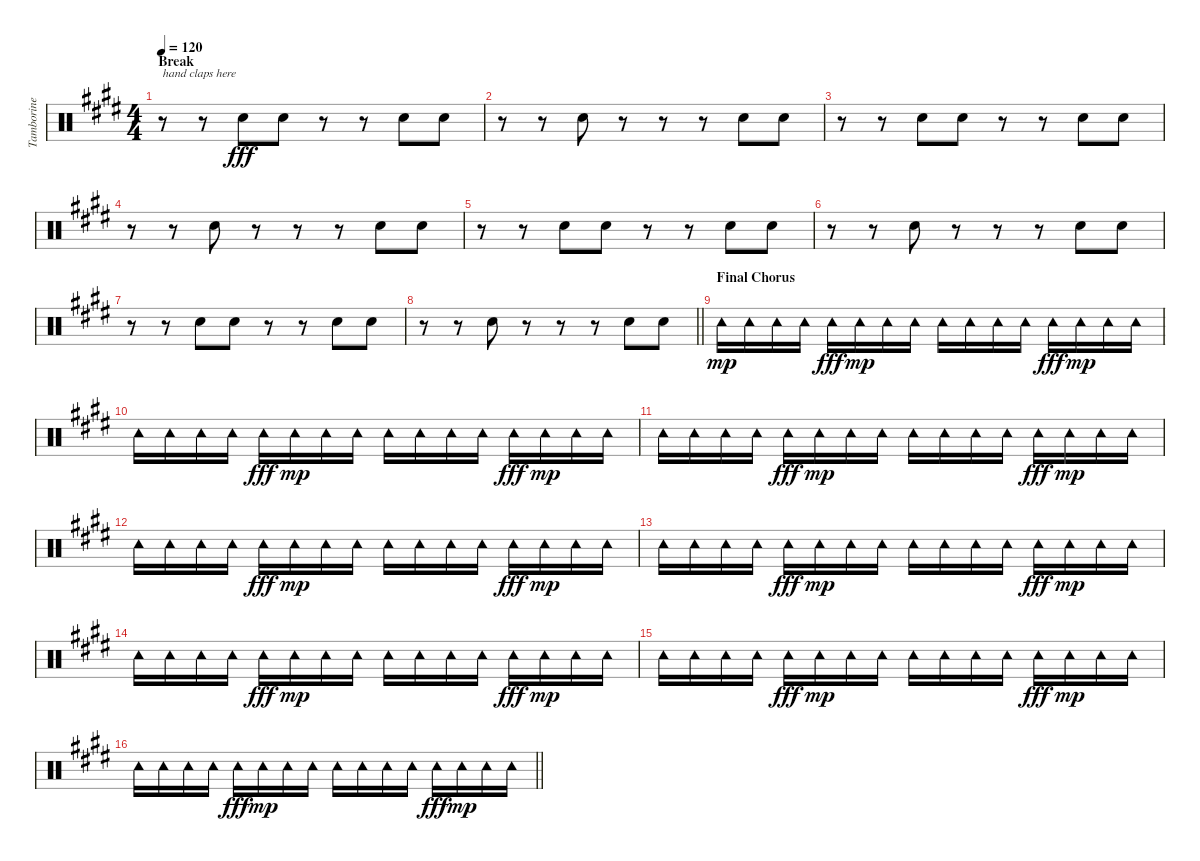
\track ("Tamborine" "Tamborine") {instrument percussion}
\staff {score}
\articulation defaults
\ts (4 4)
\section ("" "Break")
\tempo 120
\clef neutral
\ks e
r.8{txt "hand claps here" dy p} r.8 "Hand Clap (hit)".8{dy fff} "Hand Clap (hit)".8 r.8 r.8 "Hand Clap (hit)".8 "Hand Clap (hit)".8 |
r.8 r.8 "Hand Clap (hit)".8 r.8 r.8 r.8 "Hand Clap (hit)".8 "Hand Clap (hit)".8 |
r.8 r.8 "Hand Clap (hit)".8 "Hand Clap (hit)".8 r.8 r.8 "Hand Clap (hit)".8 "Hand Clap (hit)".8 |
r.8 r.8 "Hand Clap (hit)".8 r.8 r.8 r.8 "Hand Clap (hit)".8 "Hand Clap (hit)".8 |
r.8 r.8 "Hand Clap (hit)".8 "Hand Clap (hit)".8 r.8 r.8 "Hand Clap (hit)".8 "Hand Clap (hit)".8 |
r.8 r.8 "Hand Clap (hit)".8 r.8 r.8 r.8 "Hand Clap (hit)".8 "Hand Clap (hit)".8 |
r.8 r.8 "Hand Clap (hit)".8 "Hand Clap (hit)".8 r.8 r.8 "Hand Clap (hit)".8 "Hand Clap (hit)".8 |
\barLineRight lightlight
r.8 r.8 "Hand Clap (hit)".8 r.8 r.8 r.8 "Hand Clap (hit)".8 "Hand Clap (hit)".8 |
\section ("" "Final Chorus")
"Tambourine (hit)".16{dy mp} "Tambourine (hit)".16 "Tambourine (hit)".16 "Tambourine (hit)".16 "Tambourine (hit)".16{dy fff} "Tambourine (hit)".16{dy mp} "Tambourine (hit)".16 "Tambourine (hit)".16 "Tambourine (hit)".16 "Tambourine (hit)".16 "Tambourine (hit)".16 "Tambourine (hit)".16 "Tambourine (hit)".16{dy fff} "Tambourine (hit)".16{dy mp} "Tambourine (hit)".16 "Tambourine (hit)".16 |
"Tambourine (hit)".16 "Tambourine (hit)".16 "Tambourine (hit)".16 "Tambourine (hit)".16 "Tambourine (hit)".16{dy fff} "Tambourine (hit)".16{dy mp} "Tambourine (hit)".16 "Tambourine (hit)".16 "Tambourine (hit)".16 "Tambourine (hit)".16 "Tambourine (hit)".16 "Tambourine (hit)".16 "Tambourine (hit)".16{dy fff} "Tambourine (hit)".16{dy mp} "Tambourine (hit)".16 "Tambourine (hit)".16 |
"Tambourine (hit)".16 "Tambourine (hit)".16 "Tambourine (hit)".16 "Tambourine (hit)".16 "Tambourine (hit)".16{dy fff} "Tambourine (hit)".16{dy mp} "Tambourine (hit)".16 "Tambourine (hit)".16 "Tambourine (hit)".16 "Tambourine (hit)".16 "Tambourine (hit)".16 "Tambourine (hit)".16 "Tambourine (hit)".16{dy fff} "Tambourine (hit)".16{dy mp} "Tambourine (hit)".16 "Tambourine (hit)".16 |
"Tambourine (hit)".16 "Tambourine (hit)".16 "Tambourine (hit)".16 "Tambourine (hit)".16 "Tambourine (hit)".16{dy fff} "Tambourine (hit)".16{dy mp} "Tambourine (hit)".16 "Tambourine (hit)".16 "Tambourine (hit)".16 "Tambourine (hit)".16 "Tambourine (hit)".16 "Tambourine (hit)".16 "Tambourine (hit)".16{dy fff} "Tambourine (hit)".16{dy mp} "Tambourine (hit)".16 "Tambourine (hit)".16 |
"Tambourine (hit)".16 "Tambourine (hit)".16 "Tambourine (hit)".16 "Tambourine (hit)".16 "Tambourine (hit)".16{dy fff} "Tambourine (hit)".16{dy mp} "Tambourine (hit)".16 "Tambourine (hit)".16 "Tambourine (hit)".16 "Tambourine (hit)".16 "Tambourine (hit)".16 "Tambourine (hit)".16 "Tambourine (hit)".16{dy fff} "Tambourine (hit)".16{dy mp} "Tambourine (hit)".16 "Tambourine (hit)".16 |
"Tambourine (hit)".16 "Tambourine (hit)".16 "Tambourine (hit)".16 "Tambourine (hit)".16 "Tambourine (hit)".16{dy fff} "Tambourine (hit)".16{dy mp} "Tambourine (hit)".16 "Tambourine (hit)".16 "Tambourine (hit)".16 "Tambourine (hit)".16 "Tambourine (hit)".16 "Tambourine (hit)".16 "Tambourine (hit)".16{dy fff} "Tambourine (hit)".16{dy mp} "Tambourine (hit)".16 "Tambourine (hit)".16 |
"Tambourine (hit)".16 "Tambourine (hit)".16 "Tambourine (hit)".16 "Tambourine (hit)".16 "Tambourine (hit)".16{dy fff} "Tambourine (hit)".16{dy mp} "Tambourine (hit)".16 "Tambourine (hit)".16 "Tambourine (hit)".16 "Tambourine (hit)".16 "Tambourine (hit)".16 "Tambourine (hit)".16 "Tambourine (hit)".16{dy fff} "Tambourine (hit)".16{dy mp} "Tambourine (hit)".16 "Tambourine (hit)".16 |
\barLineRight lightlight "Tambourine (hit)".16 "Tambourine (hit)".16 "Tambourine (hit)".16 "Tambourine (hit)".16 "Tambourine (hit)".16{dy fff} "Tambourine (hit)".16{dy mp} "Tambourine (hit)".16 "Tambourine (hit)".16 "Tambourine (hit)".16 "Tambourine (hit)".16 "Tambourine (hit)".16 "Tambourine (hit)".16 "Tambourine (hit)".16{dy fff} "Tambourine (hit)".16{dy mp} "Tambourine (hit)".16 "Tambourine (hit)".16
